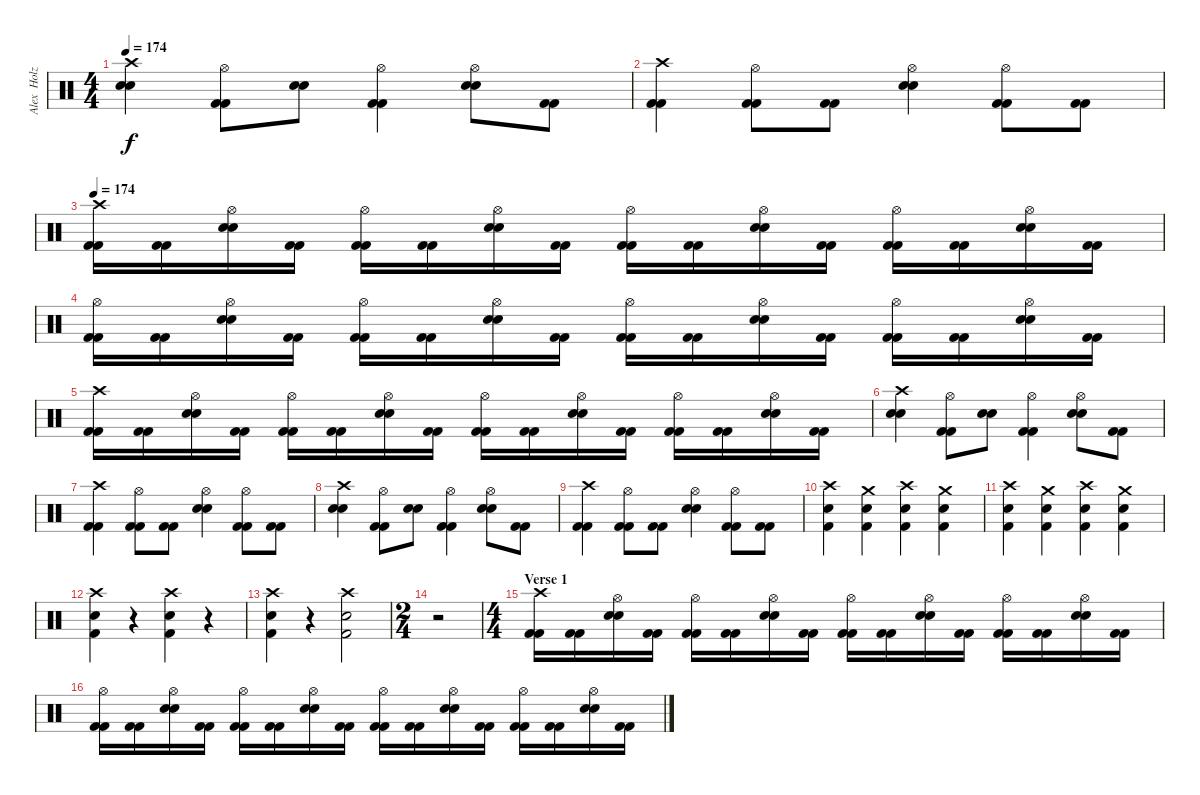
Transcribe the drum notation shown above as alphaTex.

\track ("Alex  Holzwarth (Drums)" "Alex  Holz") {instrument percussion}
\staff {score}
\articulation defaults
\ts (4 4)
\tempo 174
\clef neutral
\ks c
("Crash high (hit)" "Snare (hit) 2" "Snare (hit) 2").4{dy f} ("Hi-Hat (open)" "Kick (hit) 2" "Kick (hit) 2").8 ("Snare (hit) 2" "Snare (hit) 2").8 ("Hi-Hat (open)" "Kick (hit) 2" "Kick (hit) 2").4 ("Hi-Hat (open)" "Snare (hit) 2" "Snare (hit) 2").8 ("Kick (hit) 2" "Kick (hit) 2").8 |
("Crash high (hit)" "Kick (hit) 2" "Kick (hit) 2").4 ("Hi-Hat (open)" "Kick (hit) 2" "Kick (hit) 2").8 ("Kick (hit) 2" "Kick (hit) 2").8 ("Hi-Hat (open)" "Snare (hit) 2" "Snare (hit) 2").4 ("Hi-Hat (open)" "Kick (hit) 2" "Kick (hit) 2").8 ("Kick (hit) 2" "Kick (hit) 2").8 |
\tempo 174
("Crash high (hit)" "Kick (hit) 2" "Kick (hit) 2").16 ("Kick (hit) 2" "Kick (hit) 2").16 ("Hi-Hat (open)" "Snare (hit) 2" "Snare (hit) 2").16 ("Kick (hit) 2" "Kick (hit) 2").16 ("Hi-Hat (open)" "Kick (hit) 2" "Kick (hit) 2").16 ("Kick (hit) 2" "Kick (hit) 2").16 ("Hi-Hat (open)" "Snare (hit) 2" "Snare (hit) 2").16 ("Kick (hit) 2" "Kick (hit) 2").16 ("Hi-Hat (open)" "Kick (hit) 2" "Kick (hit) 2").16 ("Kick (hit) 2" "Kick (hit) 2").16 ("Hi-Hat (open)" "Snare (hit) 2" "Snare (hit) 2").16 ("Kick (hit) 2" "Kick (hit) 2").16 ("Hi-Hat (open)" "Kick (hit) 2" "Kick (hit) 2").16 ("Kick (hit) 2" "Kick (hit) 2").16 ("Hi-Hat (open)" "Snare (hit) 2" "Snare (hit) 2").16 ("Kick (hit) 2" "Kick (hit) 2").16 |
("Hi-Hat (open)" "Kick (hit) 2" "Kick (hit) 2").16 ("Kick (hit) 2" "Kick (hit) 2").16 ("Hi-Hat (open)" "Snare (hit) 2" "Snare (hit) 2").16 ("Kick (hit) 2" "Kick (hit) 2").16 ("Hi-Hat (open)" "Kick (hit) 2" "Kick (hit) 2").16 ("Kick (hit) 2" "Kick (hit) 2").16 ("Hi-Hat (open)" "Snare (hit) 2" "Snare (hit) 2").16 ("Kick (hit) 2" "Kick (hit) 2").16 ("Hi-Hat (open)" "Kick (hit) 2" "Kick (hit) 2").16 ("Kick (hit) 2" "Kick (hit) 2").16 ("Hi-Hat (open)" "Snare (hit) 2" "Snare (hit) 2").16 ("Kick (hit) 2" "Kick (hit) 2").16 ("Hi-Hat (open)" "Kick (hit) 2" "Kick (hit) 2").16 ("Kick (hit) 2" "Kick (hit) 2").16 ("Hi-Hat (open)" "Snare (hit) 2" "Snare (hit) 2").16 ("Kick (hit) 2" "Kick (hit) 2").16 |
("Crash high (hit)" "Kick (hit) 2" "Kick (hit) 2").16 ("Kick (hit) 2" "Kick (hit) 2").16 ("Hi-Hat (open)" "Snare (hit) 2" "Snare (hit) 2").16 ("Kick (hit) 2" "Kick (hit) 2").16 ("Hi-Hat (open)" "Kick (hit) 2" "Kick (hit) 2").16 ("Kick (hit) 2" "Kick (hit) 2").16 ("Hi-Hat (open)" "Snare (hit) 2" "Snare (hit) 2").16 ("Kick (hit) 2" "Kick (hit) 2").16 ("Hi-Hat (open)" "Kick (hit) 2" "Kick (hit) 2").16 ("Kick (hit) 2" "Kick (hit) 2").16 ("Hi-Hat (open)" "Snare (hit) 2" "Snare (hit) 2").16 ("Kick (hit) 2" "Kick (hit) 2").16 ("Hi-Hat (open)" "Kick (hit) 2" "Kick (hit) 2").16 ("Kick (hit) 2" "Kick (hit) 2").16 ("Hi-Hat (open)" "Snare (hit) 2" "Snare (hit) 2").16 ("Kick (hit) 2" "Kick (hit) 2").16 |
("Crash high (hit)" "Snare (hit) 2" "Snare (hit) 2").4 ("Hi-Hat (open)" "Kick (hit) 2" "Kick (hit) 2").8 ("Snare (hit) 2" "Snare (hit) 2").8 ("Hi-Hat (open)" "Kick (hit) 2" "Kick (hit) 2").4 ("Hi-Hat (open)" "Snare (hit) 2" "Snare (hit) 2").8 ("Kick (hit) 2" "Kick (hit) 2").8 |
("Crash high (hit)" "Kick (hit) 2" "Kick (hit) 2").4 ("Hi-Hat (open)" "Kick (hit) 2" "Kick (hit) 2").8 ("Kick (hit) 2" "Kick (hit) 2").8 ("Hi-Hat (open)" "Snare (hit) 2" "Snare (hit) 2").4 ("Hi-Hat (open)" "Kick (hit) 2" "Kick (hit) 2").8 ("Kick (hit) 2" "Kick (hit) 2").8 |
("Crash high (hit)" "Snare (hit) 2" "Snare (hit) 2").4 ("Hi-Hat (open)" "Kick (hit) 2" "Kick (hit) 2").8 ("Snare (hit) 2" "Snare (hit) 2").8 ("Hi-Hat (open)" "Kick (hit) 2" "Kick (hit) 2").4 ("Hi-Hat (open)" "Snare (hit) 2" "Snare (hit) 2").8 ("Kick (hit) 2" "Kick (hit) 2").8 |
("Crash high (hit)" "Kick (hit) 2" "Kick (hit) 2").4 ("Hi-Hat (open)" "Kick (hit) 2" "Kick (hit) 2").8 ("Kick (hit) 2" "Kick (hit) 2").8 ("Hi-Hat (open)" "Snare (hit) 2" "Snare (hit) 2").4 ("Hi-Hat (open)" "Kick (hit) 2" "Kick (hit) 2").8 ("Kick (hit) 2" "Kick (hit) 2").8 |
("Crash high (hit)" "Snare (hit) 2" "Kick (hit) 2").4 ("Crash medium (hit)" "Snare (hit) 2" "Kick (hit) 2").4 ("Crash high (hit)" "Snare (hit) 2" "Kick (hit) 2").4 ("Crash medium (hit)" "Snare (hit) 2" "Kick (hit) 2").4 |
("Crash high (hit)" "Snare (hit) 2" "Kick (hit) 2").4 ("Crash medium (hit)" "Snare (hit) 2" "Kick (hit) 2").4 ("Crash high (hit)" "Snare (hit) 2" "Kick (hit) 2").4 ("Crash medium (hit)" "Snare (hit) 2" "Kick (hit) 2").4 |
("Crash high (hit)" "Snare (hit) 2" "Kick (hit) 2").4 r.4 ("Crash high (hit)" "Snare (hit) 2" "Kick (hit) 2").4 r.4 |
("Crash high (hit)" "Snare (hit) 2" "Kick (hit) 2").4 r.4 ("Crash high (hit)" "Snare (hit) 2" "Kick (hit) 2").2 |
\ts (2 4)
r.2 |
\ts (4 4)
\section ("" "Verse 1")
("Crash high (hit)" "Kick (hit) 2" "Kick (hit) 2").16 ("Kick (hit) 2" "Kick (hit) 2").16 ("Hi-Hat (open)" "Snare (hit) 2" "Snare (hit) 2").16 ("Kick (hit) 2" "Kick (hit) 2").16 ("Hi-Hat (open)" "Kick (hit) 2" "Kick (hit) 2").16 ("Kick (hit) 2" "Kick (hit) 2").16 ("Hi-Hat (open)" "Snare (hit) 2" "Snare (hit) 2").16 ("Kick (hit) 2" "Kick (hit) 2").16 ("Hi-Hat (open)" "Kick (hit) 2" "Kick (hit) 2").16 ("Kick (hit) 2" "Kick (hit) 2").16 ("Hi-Hat (open)" "Snare (hit) 2" "Snare (hit) 2").16 ("Kick (hit) 2" "Kick (hit) 2").16 ("Hi-Hat (open)" "Kick (hit) 2" "Kick (hit) 2").16 ("Kick (hit) 2" "Kick (hit) 2").16 ("Hi-Hat (open)" "Snare (hit) 2" "Snare (hit) 2").16 ("Kick (hit) 2" "Kick (hit) 2").16 |
("Hi-Hat (open)" "Kick (hit) 2" "Kick (hit) 2").16 ("Kick (hit) 2" "Kick (hit) 2").16 ("Hi-Hat (open)" "Snare (hit) 2" "Snare (hit) 2").16 ("Kick (hit) 2" "Kick (hit) 2").16 ("Hi-Hat (open)" "Kick (hit) 2" "Kick (hit) 2").16 ("Kick (hit) 2" "Kick (hit) 2").16 ("Hi-Hat (open)" "Snare (hit) 2" "Snare (hit) 2").16 ("Kick (hit) 2" "Kick (hit) 2").16 ("Hi-Hat (open)" "Kick (hit) 2" "Kick (hit) 2").16 ("Kick (hit) 2" "Kick (hit) 2").16 ("Hi-Hat (open)" "Snare (hit) 2" "Snare (hit) 2").16 ("Kick (hit) 2" "Kick (hit) 2").16 ("Hi-Hat (open)" "Kick (hit) 2" "Kick (hit) 2").16 ("Kick (hit) 2" "Kick (hit) 2").16 ("Hi-Hat (open)" "Snare (hit) 2" "Snare (hit) 2").16 ("Kick (hit) 2" "Kick (hit) 2").16
